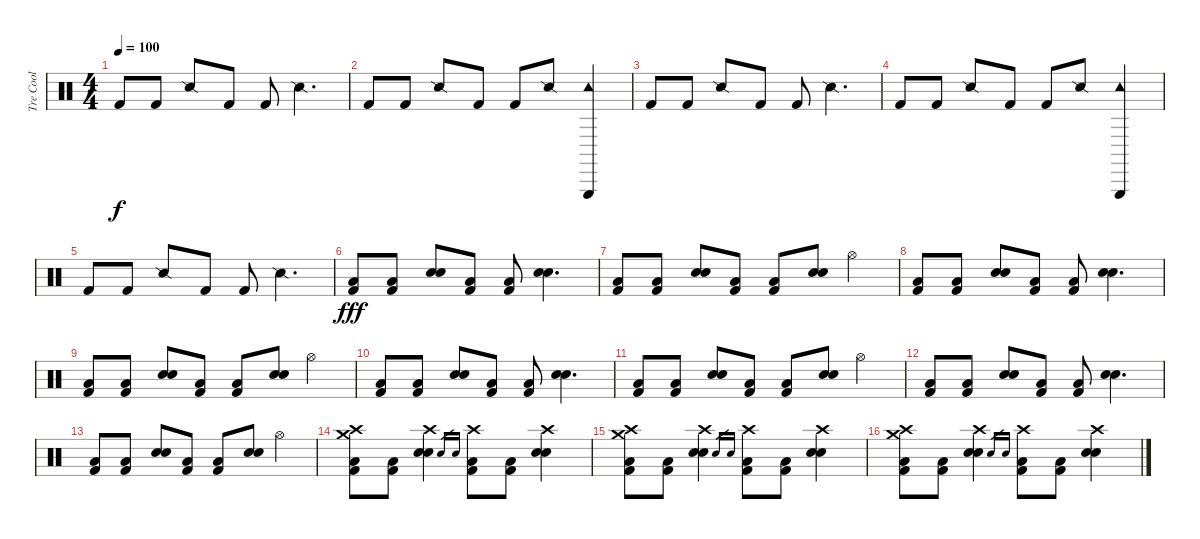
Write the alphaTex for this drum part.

\track ("Tre Cool" "Tre Cool") {instrument percussion}
\staff {score}
\articulation defaults
\ts (4 4)
\tempo 100
\clef neutral
\ks c "Kick (hit) 2".8{dy f} "Kick (hit) 2".8 "Snare (side stick) 2".8 "Kick (hit) 2".8 "Kick (hit) 2".8 "Snare (side stick) 2".4{d}
|
"Kick (hit) 2".8 "Kick (hit) 2".8 "Snare (side stick) 2".8 "Kick (hit) 2".8 "Kick (hit) 2".8 "Snare (side stick) 2".8 ("Triangle (hit)" "Tambourine (hit)").4 |
"Kick (hit) 2".8 "Kick (hit) 2".8 "Snare (side stick) 2".8 "Kick (hit) 2".8 "Kick (hit) 2".8 "Snare (side stick) 2".4{d} |
"Kick (hit) 2".8 "Kick (hit) 2".8 "Snare (side stick) 2".8 "Kick (hit) 2".8 "Kick (hit) 2".8 "Snare (side stick) 2".8 ("Triangle (hit)" "Tambourine (hit)").4 |
"Kick (hit) 2".8 "Kick (hit) 2".8 "Snare (side stick) 2".8 "Kick (hit) 2".8 "Kick (hit) 2".8 "Snare (side stick) 2".4{d} |
("Kick (hit) 2" "Low Floor Tom (hit)").8{dy fff} ("Kick (hit) 2" "Low Floor Tom (hit)").8 ("Electric Snare (hit)" "Electric Snare (hit)").8 ("Kick (hit) 2" "Low Floor Tom (hit)").8 ("Kick (hit) 2" "Low Floor Tom (hit)").8 ("Electric Snare (hit)" "Electric Snare (hit)").4{d} |
("Kick (hit) 2" "Low Floor Tom (hit)").8 ("Kick (hit) 2" "Low Floor Tom (hit)").8 ("Electric Snare (hit)" "Electric Snare (hit)").8 ("Kick (hit) 2" "Low Floor Tom (hit)").8 ("Kick (hit) 2" "Low Floor Tom (hit)").8 ("Electric Snare (hit)" "Electric Snare (hit)").8 "Hi-Hat (open)".4 |
("Kick (hit) 2" "Low Floor Tom (hit)").8 ("Kick (hit) 2" "Low Floor Tom (hit)").8 ("Electric Snare (hit)" "Electric Snare (hit)").8 ("Kick (hit) 2" "Low Floor Tom (hit)").8 ("Kick (hit) 2" "Low Floor Tom (hit)").8 ("Electric Snare (hit)" "Electric Snare (hit)").4{d} |
("Kick (hit) 2" "Low Floor Tom (hit)").8 ("Kick (hit) 2" "Low Floor Tom (hit)").8 ("Electric Snare (hit)" "Electric Snare (hit)").8 ("Kick (hit) 2" "Low Floor Tom (hit)").8 ("Kick (hit) 2" "Low Floor Tom (hit)").8 ("Electric Snare (hit)" "Electric Snare (hit)").8 "Hi-Hat (open)".4 |
("Kick (hit) 2" "Low Floor Tom (hit)").8 ("Kick (hit) 2" "Low Floor Tom (hit)").8 ("Electric Snare (hit)" "Electric Snare (hit)").8 ("Kick (hit) 2" "Low Floor Tom (hit)").8 ("Kick (hit) 2" "Low Floor Tom (hit)").8 ("Electric Snare (hit)" "Electric Snare (hit)").4{d} |
("Kick (hit) 2" "Low Floor Tom (hit)").8 ("Kick (hit) 2" "Low Floor Tom (hit)").8 ("Electric Snare (hit)" "Electric Snare (hit)").8 ("Kick (hit) 2" "Low Floor Tom (hit)").8 ("Kick (hit) 2" "Low Floor Tom (hit)").8 ("Electric Snare (hit)" "Electric Snare (hit)").8 "Hi-Hat (open)".4 |
("Kick (hit) 2" "Low Floor Tom (hit)").8 ("Kick (hit) 2" "Low Floor Tom (hit)").8 ("Electric Snare (hit)" "Electric Snare (hit)").8 ("Kick (hit) 2" "Low Floor Tom (hit)").8 ("Kick (hit) 2" "Low Floor Tom (hit)").8 ("Electric Snare (hit)" "Electric Snare (hit)").4{d} |
("Kick (hit) 2" "Low Floor Tom (hit)").8 ("Kick (hit) 2" "Low Floor Tom (hit)").8 ("Electric Snare (hit)" "Electric Snare (hit)").8 ("Kick (hit) 2" "Low Floor Tom (hit)").8 ("Kick (hit) 2" "Low Floor Tom (hit)").8 ("Electric Snare (hit)" "Electric Snare (hit)").8 "Hi-Hat (open)".4 |
("Crash high (hit)" "Crash medium (hit)" "Kick (hit) 2" "Low Floor Tom (hit)").8 ("Kick (hit) 2" "Low Floor Tom (hit)").8 ("Crash high (hit)" "Electric Snare (hit)" "Electric Snare (hit)").4 "Electric Snare (hit)".16{gr} "Electric Snare (hit)".16{gr} ("Crash high (hit)" "Kick (hit) 2" "Low Floor Tom (hit)").8 ("Kick (hit) 2" "Low Floor Tom (hit)").8 ("Crash high (hit)" "Electric Snare (hit)" "Electric Snare (hit)").4 |
("Crash high (hit)" "Crash medium (hit)" "Kick (hit) 2" "Low Floor Tom (hit)").8 ("Kick (hit) 2" "Low Floor Tom (hit)").8 ("Crash high (hit)" "Electric Snare (hit)" "Electric Snare (hit)").4 "Electric Snare (hit)".16{gr} "Electric Snare (hit)".16{gr} ("Crash high (hit)" "Kick (hit) 2" "Low Floor Tom (hit)").8 ("Kick (hit) 2" "Low Floor Tom (hit)").8 ("Crash high (hit)" "Electric Snare (hit)" "Electric Snare (hit)").4 |
("Crash high (hit)" "Crash medium (hit)" "Kick (hit) 2" "Low Floor Tom (hit)").8 ("Kick (hit) 2" "Low Floor Tom (hit)").8 ("Crash high (hit)" "Electric Snare (hit)" "Electric Snare (hit)").4 "Electric Snare (hit)".16{gr} "Electric Snare (hit)".16{gr} ("Crash high (hit)" "Kick (hit) 2" "Low Floor Tom (hit)").8 ("Kick (hit) 2" "Low Floor Tom (hit)").8 ("Crash high (hit)" "Electric Snare (hit)" "Electric Snare (hit)").4
